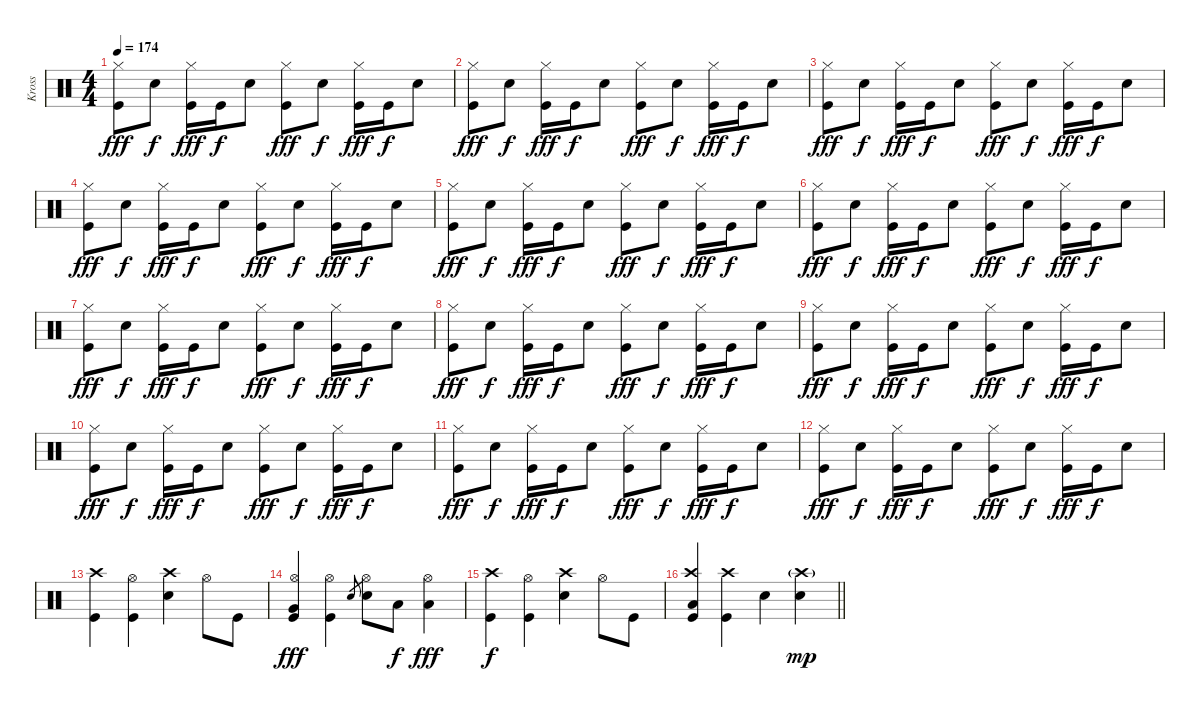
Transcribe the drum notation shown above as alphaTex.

\track ("Kross" "Kross") {instrument percussion}
\staff {score}
\articulation defaults
\ts (4 4)
\tempo 174
\clef neutral
\ks c
("Hi-Hat (closed)" "Kick (hit)").8{dy fff} "Snare (hit) 2".8{dy f} ("Hi-Hat (closed)" "Kick (hit)").16{dy fff} "Kick (hit)".16{dy f} "Snare (hit) 2".8 ("Hi-Hat (closed)" "Kick (hit)").8{dy fff} "Snare (hit) 2".8{dy f} ("Hi-Hat (closed)" "Kick (hit)").16{dy fff} "Kick (hit)".16{dy f} "Snare (hit) 2".8 |
("Hi-Hat (closed)" "Kick (hit)").8{dy fff} "Snare (hit) 2".8{dy f} ("Hi-Hat (closed)" "Kick (hit)").16{dy fff} "Kick (hit)".16{dy f} "Snare (hit) 2".8 ("Hi-Hat (closed)" "Kick (hit)").8{dy fff} "Snare (hit) 2".8{dy f} ("Hi-Hat (closed)" "Kick (hit)").16{dy fff} "Kick (hit)".16{dy f} "Snare (hit) 2".8 |
("Hi-Hat (closed)" "Kick (hit)").8{dy fff} "Snare (hit) 2".8{dy f} ("Hi-Hat (closed)" "Kick (hit)").16{dy fff} "Kick (hit)".16{dy f} "Snare (hit) 2".8 ("Hi-Hat (closed)" "Kick (hit)").8{dy fff} "Snare (hit) 2".8{dy f} ("Hi-Hat (closed)" "Kick (hit)").16{dy fff} "Kick (hit)".16{dy f} "Snare (hit) 2".8 |
("Hi-Hat (closed)" "Kick (hit)").8{dy fff} "Snare (hit) 2".8{dy f} ("Hi-Hat (closed)" "Kick (hit)").16{dy fff} "Kick (hit)".16{dy f} "Snare (hit) 2".8 ("Hi-Hat (closed)" "Kick (hit)").8{dy fff} "Snare (hit) 2".8{dy f} ("Hi-Hat (closed)" "Kick (hit)").16{dy fff} "Kick (hit)".16{dy f} "Snare (hit) 2".8 |
("Hi-Hat (closed)" "Kick (hit)").8{dy fff} "Snare (hit) 2".8{dy f} ("Hi-Hat (closed)" "Kick (hit)").16{dy fff} "Kick (hit)".16{dy f} "Snare (hit) 2".8 ("Hi-Hat (closed)" "Kick (hit)").8{dy fff} "Snare (hit) 2".8{dy f} ("Hi-Hat (closed)" "Kick (hit)").16{dy fff} "Kick (hit)".16{dy f} "Snare (hit) 2".8 |
("Hi-Hat (closed)" "Kick (hit)").8{dy fff} "Snare (hit) 2".8{dy f} ("Hi-Hat (closed)" "Kick (hit)").16{dy fff} "Kick (hit)".16{dy f} "Snare (hit) 2".8 ("Hi-Hat (closed)" "Kick (hit)").8{dy fff} "Snare (hit) 2".8{dy f} ("Hi-Hat (closed)" "Kick (hit)").16{dy fff} "Kick (hit)".16{dy f} "Snare (hit) 2".8 |
("Hi-Hat (closed)" "Kick (hit)").8{dy fff} "Snare (hit) 2".8{dy f} ("Hi-Hat (closed)" "Kick (hit)").16{dy fff} "Kick (hit)".16{dy f} "Snare (hit) 2".8 ("Hi-Hat (closed)" "Kick (hit)").8{dy fff} "Snare (hit) 2".8{dy f} ("Hi-Hat (closed)" "Kick (hit)").16{dy fff} "Kick (hit)".16{dy f} "Snare (hit) 2".8 |
("Hi-Hat (closed)" "Kick (hit)").8{dy fff} "Snare (hit) 2".8{dy f} ("Hi-Hat (closed)" "Kick (hit)").16{dy fff} "Kick (hit)".16{dy f} "Snare (hit) 2".8 ("Hi-Hat (closed)" "Kick (hit)").8{dy fff} "Snare (hit) 2".8{dy f} ("Hi-Hat (closed)" "Kick (hit)").16{dy fff} "Kick (hit)".16{dy f} "Snare (hit) 2".8 |
("Hi-Hat (closed)" "Kick (hit)").8{dy fff} "Snare (hit) 2".8{dy f} ("Hi-Hat (closed)" "Kick (hit)").16{dy fff} "Kick (hit)".16{dy f} "Snare (hit) 2".8 ("Hi-Hat (closed)" "Kick (hit)").8{dy fff} "Snare (hit) 2".8{dy f} ("Hi-Hat (closed)" "Kick (hit)").16{dy fff} "Kick (hit)".16{dy f} "Snare (hit) 2".8 |
("Hi-Hat (closed)" "Kick (hit)").8{dy fff} "Snare (hit) 2".8{dy f} ("Hi-Hat (closed)" "Kick (hit)").16{dy fff} "Kick (hit)".16{dy f} "Snare (hit) 2".8 ("Hi-Hat (closed)" "Kick (hit)").8{dy fff} "Snare (hit) 2".8{dy f} ("Hi-Hat (closed)" "Kick (hit)").16{dy fff} "Kick (hit)".16{dy f} "Snare (hit) 2".8 |
("Hi-Hat (closed)" "Kick (hit)").8{dy fff} "Snare (hit) 2".8{dy f} ("Hi-Hat (closed)" "Kick (hit)").16{dy fff} "Kick (hit)".16{dy f} "Snare (hit) 2".8 ("Hi-Hat (closed)" "Kick (hit)").8{dy fff} "Snare (hit) 2".8{dy f} ("Hi-Hat (closed)" "Kick (hit)").16{dy fff} "Kick (hit)".16{dy f} "Snare (hit) 2".8 |
("Hi-Hat (closed)" "Kick (hit)").8{dy fff} "Snare (hit) 2".8{dy f} ("Hi-Hat (closed)" "Kick (hit)").16{dy fff} "Kick (hit)".16{dy f} "Snare (hit) 2".8 ("Hi-Hat (closed)" "Kick (hit)").8{dy fff} "Snare (hit) 2".8{dy f} ("Hi-Hat (closed)" "Kick (hit)").16{dy fff} "Kick (hit)".16{dy f} "Snare (hit) 2".8 |
("Crash high (hit)" "Kick (hit)").4 ("Hi-Hat (open)" "Kick (hit)").4 ("Crash high (hit)" "Snare (hit) 2").4 "Hi-Hat (open)".8 "Kick (hit)".8 |
("Hi-Hat (open)" "Very Low Tom (hit)" "Kick (hit)").4{dy fff} ("Hi-Hat (open)" "Kick (hit)").4 "Snare (hit) 2".8{gr} ("Hi-Hat (open)" "Snare (hit) 2").8 "Low Tom (hit)".8{dy f} ("Hi-Hat (open)" "Low Floor Tom (hit)").4{dy fff} |
("Crash high (hit)" "Kick (hit)").4{dy f} ("Hi-Hat (open)" "Kick (hit)").4 ("Crash high (hit)" "Snare (hit) 2").4 "Hi-Hat (open)".8 "Kick (hit)".8 |
\barLineRight lightlight
("Crash high (hit)" "Low Floor Tom (hit)" "Kick (hit)").4 ("Crash high (hit)" "Kick (hit)").4 "Snare (hit) 2".4 ("Crash high (hit)"{g} "Snare (hit) 2").4{dy mp}
